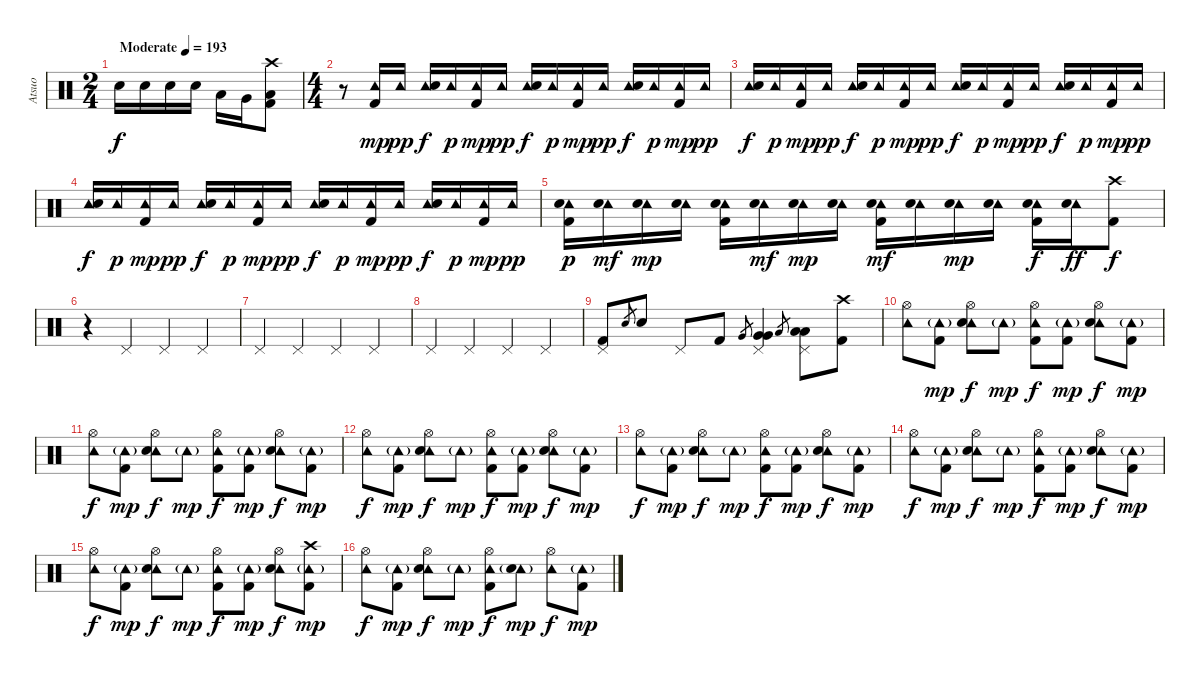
\track ("Atsuo" "Atsuo") {instrument percussion}
\staff {score}
\articulation defaults
\ts (2 4)
\tempo (193 "Moderate")
\clef neutral
\ks c "Electric Snare (hit)".16{dy f} "Electric Snare (hit)".16 "Electric Snare (hit)".16 "Electric Snare (hit)".16 "Low Tom (hit)".16 "Very Low Tom (hit)".16
("Crash high (hit)" "Low Floor Tom (hit)" "Kick (hit) 2").8 |
\ts (4 4)
r.8 ("Tambourine (hit)" "Kick (hit) 2").16{dy mp} "Tambourine (hit)".16{dy pp} ("Tambourine (hit)" "Electric Snare (hit)").16{dy f} "Tambourine (hit)".16{dy p} ("Tambourine (hit)" "Kick (hit) 2").16{dy mp} "Tambourine (hit)".16{dy pp} ("Tambourine (hit)" "Electric Snare (hit)").16{dy f} "Tambourine (hit)".16{dy p} ("Tambourine (hit)" "Kick (hit) 2").16{dy mp} "Tambourine (hit)".16{dy pp} ("Tambourine (hit)" "Electric Snare (hit)").16{dy f} "Tambourine (hit)".16{dy p} ("Tambourine (hit)" "Kick (hit) 2").16{dy mp} "Tambourine (hit)".16{dy pp} |
("Tambourine (hit)" "Electric Snare (hit)").16{dy f} "Tambourine (hit)".16{dy p} ("Tambourine (hit)" "Kick (hit) 2").16{dy mp} "Tambourine (hit)".16{dy pp} ("Tambourine (hit)" "Electric Snare (hit)").16{dy f} "Tambourine (hit)".16{dy p} ("Tambourine (hit)" "Kick (hit) 2").16{dy mp} "Tambourine (hit)".16{dy pp} ("Tambourine (hit)" "Electric Snare (hit)").16{dy f} "Tambourine (hit)".16{dy p} ("Tambourine (hit)" "Kick (hit) 2").16{dy mp} "Tambourine (hit)".16{dy pp} ("Tambourine (hit)" "Electric Snare (hit)").16{dy f} "Tambourine (hit)".16{dy p} ("Tambourine (hit)" "Kick (hit) 2").16{dy mp} "Tambourine (hit)".16{dy pp} |
("Tambourine (hit)" "Electric Snare (hit)").16{dy f} "Tambourine (hit)".16{dy p} ("Tambourine (hit)" "Kick (hit) 2").16{dy mp} "Tambourine (hit)".16{dy pp} ("Tambourine (hit)" "Electric Snare (hit)").16{dy f} "Tambourine (hit)".16{dy p} ("Tambourine (hit)" "Kick (hit) 2").16{dy mp} "Tambourine (hit)".16{dy pp} ("Tambourine (hit)" "Electric Snare (hit)").16{dy f} "Tambourine (hit)".16{dy p} ("Tambourine (hit)" "Kick (hit) 2").16{dy mp} "Tambourine (hit)".16{dy pp} ("Tambourine (hit)" "Electric Snare (hit)").16{dy f} "Tambourine (hit)".16{dy p} ("Tambourine (hit)" "Kick (hit) 2").16{dy mp} "Tambourine (hit)".16{dy pp} |
("Tambourine (hit)" "Electric Snare (hit)" "Kick (hit) 2").16{dy p} ("Tambourine (hit)" "Electric Snare (hit)").16{dy mf} ("Tambourine (hit)" "Electric Snare (hit)").16{dy mp} ("Tambourine (hit)" "Electric Snare (hit)").16 ("Tambourine (hit)" "Electric Snare (hit)" "Kick (hit) 2").16 ("Tambourine (hit)" "Electric Snare (hit)").16{dy mf} ("Tambourine (hit)" "Electric Snare (hit)").16{dy mp} ("Tambourine (hit)" "Electric Snare (hit)").16 ("Tambourine (hit)" "Electric Snare (hit)" "Kick (hit) 2").16{dy mf} ("Tambourine (hit)" "Electric Snare (hit)").16 ("Tambourine (hit)" "Electric Snare (hit)").16{dy mp} ("Tambourine (hit)" "Electric Snare (hit)").16 ("Tambourine (hit)" "Electric Snare (hit)" "Kick (hit) 2").16{dy f} ("Tambourine (hit)" "Electric Snare (hit)").16{dy ff} ("Crash high (hit)" "Kick (hit) 2").8{dy f} |
r.4 "Pedal Hi-Hat (hit)".4 "Pedal Hi-Hat (hit)".4 "Pedal Hi-Hat (hit)".4 |
"Pedal Hi-Hat (hit)".4 "Pedal Hi-Hat (hit)".4 "Pedal Hi-Hat (hit)".4 "Pedal Hi-Hat (hit)".4 |
"Pedal Hi-Hat (hit)".4 "Pedal Hi-Hat (hit)".4 "Pedal Hi-Hat (hit)".4 "Pedal Hi-Hat (hit)".4 |
("Pedal Hi-Hat (hit)" "Kick (hit) 2").8 "Electric Snare (hit)".8{gr} "Electric Snare (hit)".8 "Pedal Hi-Hat (hit)".8 "Kick (hit) 2".8 "Very Low Tom (hit)".8{gr} ("Pedal Hi-Hat (hit)" "Very Low Tom (hit)" "Very Low Tom (hit)").4 "Low Floor Tom (hit)".8{gr} ("Pedal Hi-Hat (hit)" "Low Floor Tom (hit)" "Low Floor Tom (hit)").8 ("Crash high (hit)" "Kick (hit) 2").8 |
("Hi-Hat (open)" "Tambourine (hit)").8 ("Tambourine (hit)"{g} "Kick (hit) 2").8{dy mp} ("Hi-Hat (open)" "Tambourine (hit)" "Electric Snare (hit)").8{dy f} "Tambourine (hit)"{g}.8{dy mp} ("Hi-Hat (open)" "Tambourine (hit)" "Kick (hit) 2").8{dy f} ("Tambourine (hit)"{g} "Kick (hit) 2").8{dy mp} ("Hi-Hat (open)" "Tambourine (hit)" "Electric Snare (hit)").8{dy f} ("Tambourine (hit)"{g} "Kick (hit) 2").8{dy mp} |
("Hi-Hat (open)" "Tambourine (hit)").8{dy f} ("Tambourine (hit)"{g} "Kick (hit) 2").8{dy mp} ("Hi-Hat (open)" "Tambourine (hit)" "Electric Snare (hit)").8{dy f} "Tambourine (hit)"{g}.8{dy mp} ("Hi-Hat (open)" "Tambourine (hit)" "Kick (hit) 2").8{dy f} ("Tambourine (hit)"{g} "Kick (hit) 2").8{dy mp} ("Hi-Hat (open)" "Tambourine (hit)" "Electric Snare (hit)").8{dy f} ("Tambourine (hit)"{g} "Kick (hit) 2").8{dy mp} |
("Hi-Hat (open)" "Tambourine (hit)").8{dy f} ("Tambourine (hit)"{g} "Kick (hit) 2").8{dy mp} ("Hi-Hat (open)" "Tambourine (hit)" "Electric Snare (hit)").8{dy f} "Tambourine (hit)"{g}.8{dy mp} ("Hi-Hat (open)" "Tambourine (hit)" "Kick (hit) 2").8{dy f} ("Tambourine (hit)"{g} "Kick (hit) 2").8{dy mp} ("Hi-Hat (open)" "Tambourine (hit)" "Electric Snare (hit)").8{dy f} ("Tambourine (hit)"{g} "Kick (hit) 2").8{dy mp} |
("Hi-Hat (open)" "Tambourine (hit)").8{dy f} ("Tambourine (hit)"{g} "Kick (hit) 2").8{dy mp} ("Hi-Hat (open)" "Tambourine (hit)" "Electric Snare (hit)").8{dy f} "Tambourine (hit)"{g}.8{dy mp} ("Hi-Hat (open)" "Tambourine (hit)" "Kick (hit) 2").8{dy f} ("Tambourine (hit)"{g} "Kick (hit) 2").8{dy mp} ("Hi-Hat (open)" "Tambourine (hit)" "Electric Snare (hit)").8{dy f} ("Tambourine (hit)"{g} "Kick (hit) 2").8{dy mp} |
("Hi-Hat (open)" "Tambourine (hit)").8{dy f} ("Tambourine (hit)"{g} "Kick (hit) 2").8{dy mp} ("Hi-Hat (open)" "Tambourine (hit)" "Electric Snare (hit)").8{dy f} "Tambourine (hit)"{g}.8{dy mp} ("Hi-Hat (open)" "Tambourine (hit)" "Kick (hit) 2").8{dy f} ("Tambourine (hit)"{g} "Kick (hit) 2").8{dy mp} ("Hi-Hat (open)" "Tambourine (hit)" "Electric Snare (hit)").8{dy f} ("Tambourine (hit)"{g} "Kick (hit) 2").8{dy mp} |
("Hi-Hat (open)" "Tambourine (hit)").8{dy f} ("Tambourine (hit)"{g} "Kick (hit) 2").8{dy mp} ("Hi-Hat (open)" "Tambourine (hit)" "Electric Snare (hit)").8{dy f} "Tambourine (hit)"{g}.8{dy mp} ("Hi-Hat (open)" "Tambourine (hit)" "Kick (hit) 2").8{dy f} ("Tambourine (hit)"{g} "Kick (hit) 2").8{dy mp} ("Hi-Hat (open)" "Tambourine (hit)" "Electric Snare (hit)").8{dy f} ("Tambourine (hit)"{g} "Crash high (hit)" "Kick (hit) 2").8{dy mp} |
("Hi-Hat (open)" "Tambourine (hit)").8{dy f} ("Tambourine (hit)"{g} "Kick (hit) 2").8{dy mp} ("Hi-Hat (open)" "Tambourine (hit)" "Electric Snare (hit)").8{dy f} "Tambourine (hit)"{g}.8{dy mp} ("Hi-Hat (open)" "Tambourine (hit)" "Kick (hit) 2").8{dy f} ("Tambourine (hit)"{g} "Electric Snare (hit)").8{dy mp} ("Hi-Hat (open)" "Tambourine (hit)").8{dy f} ("Tambourine (hit)"{g} "Kick (hit) 2").8{dy mp}
